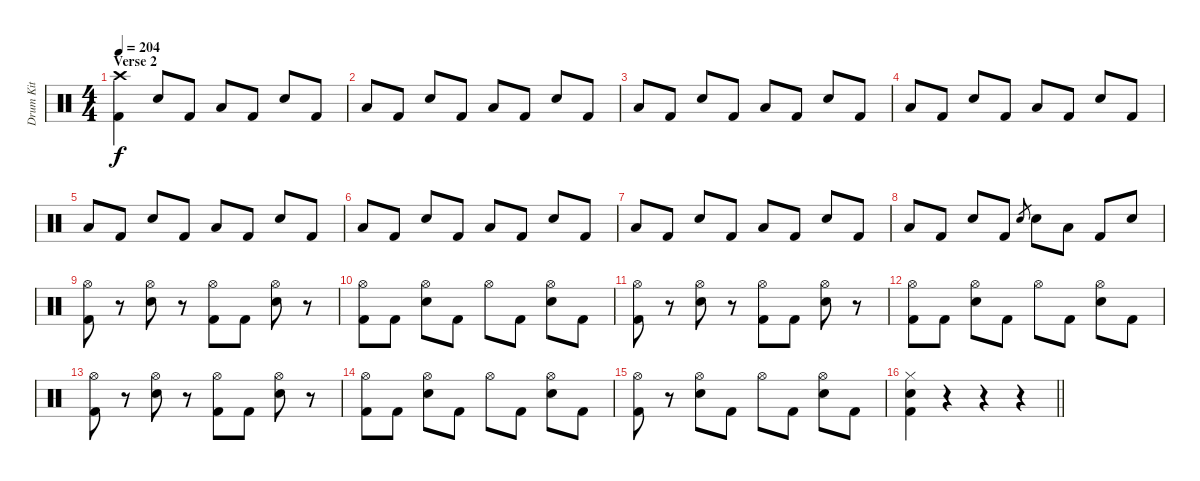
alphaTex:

\track ("Drum Kit" "Drum Kit") {instrument percussion}
\staff {score}
\articulation defaults
\ts (4 4)
\section ("" "Verse 2")
\tempo 204
\clef neutral
\ks c
("Crash high (hit)" "Kick (hit) 2").4{dy f} "Snare (hit) 2".8 "Kick (hit) 2".8 "Low Floor Tom (hit)".8 "Kick (hit) 2".8 "Snare (hit) 2".8 "Kick (hit) 2".8 |
"Low Floor Tom (hit)".8 "Kick (hit) 2".8 "Snare (hit) 2".8 "Kick (hit) 2".8 "Low Floor Tom (hit)".8 "Kick (hit) 2".8 "Snare (hit) 2".8 "Kick (hit) 2".8 |
"Low Floor Tom (hit)".8 "Kick (hit) 2".8 "Snare (hit) 2".8 "Kick (hit) 2".8 "Low Floor Tom (hit)".8 "Kick (hit) 2".8 "Snare (hit) 2".8 "Kick (hit) 2".8 |
"Low Floor Tom (hit)".8 "Kick (hit) 2".8 "Snare (hit) 2".8 "Kick (hit) 2".8 "Low Floor Tom (hit)".8 "Kick (hit) 2".8 "Snare (hit) 2".8 "Kick (hit) 2".8 |
"Low Floor Tom (hit)".8 "Kick (hit) 2".8 "Snare (hit) 2".8 "Kick (hit) 2".8 "Low Floor Tom (hit)".8 "Kick (hit) 2".8 "Snare (hit) 2".8 "Kick (hit) 2".8 |
"Low Floor Tom (hit)".8 "Kick (hit) 2".8 "Snare (hit) 2".8 "Kick (hit) 2".8 "Low Floor Tom (hit)".8 "Kick (hit) 2".8 "Snare (hit) 2".8 "Kick (hit) 2".8 |
"Low Floor Tom (hit)".8 "Kick (hit) 2".8 "Snare (hit) 2".8 "Kick (hit) 2".8 "Low Floor Tom (hit)".8 "Kick (hit) 2".8 "Snare (hit) 2".8 "Kick (hit) 2".8 |
"Low Floor Tom (hit)".8 "Kick (hit) 2".8 "Snare (hit) 2".8 "Kick (hit) 2".8 "Snare (hit) 2".8{gr} "Snare (hit) 2".8 "Low Floor Tom (hit)".8 "Kick (hit) 2".8 "Snare (hit) 2".8 |
("Hi-Hat (open)" "Kick (hit) 2").8 r.8 ("Hi-Hat (open)" "Snare (hit) 2").8 r.8 ("Hi-Hat (open)" "Kick (hit) 2").8 "Kick (hit) 2".8 ("Hi-Hat (open)" "Snare (hit) 2").8 r.8 |
("Hi-Hat (open)" "Kick (hit) 2").8 "Kick (hit) 2".8 ("Hi-Hat (open)" "Snare (hit) 2").8 "Kick (hit) 2".8 "Hi-Hat (open)".8 "Kick (hit) 2".8 ("Hi-Hat (open)" "Snare (hit) 2").8 "Kick (hit) 2".8 |
("Hi-Hat (open)" "Kick (hit) 2").8 r.8 ("Hi-Hat (open)" "Snare (hit) 2").8 r.8 ("Hi-Hat (open)" "Kick (hit) 2").8 "Kick (hit) 2".8 ("Hi-Hat (open)" "Snare (hit) 2").8 r.8 |
("Hi-Hat (open)" "Kick (hit) 2").8 "Kick (hit) 2".8 ("Hi-Hat (open)" "Snare (hit) 2").8 "Kick (hit) 2".8 "Hi-Hat (open)".8 "Kick (hit) 2".8 ("Hi-Hat (open)" "Snare (hit) 2").8 "Kick (hit) 2".8 |
("Hi-Hat (open)" "Kick (hit) 2").8 r.8 ("Hi-Hat (open)" "Snare (hit) 2").8 r.8 ("Hi-Hat (open)" "Kick (hit) 2").8 "Kick (hit) 2".8 ("Hi-Hat (open)" "Snare (hit) 2").8 r.8 |
("Hi-Hat (open)" "Kick (hit) 2").8 "Kick (hit) 2".8 ("Hi-Hat (open)" "Snare (hit) 2").8 "Kick (hit) 2".8 "Hi-Hat (open)".8 "Kick (hit) 2".8 ("Hi-Hat (open)" "Snare (hit) 2").8 "Kick (hit) 2".8 |
("Hi-Hat (open)" "Kick (hit) 2").8 r.8 ("Hi-Hat (open)" "Snare (hit) 2").8 "Kick (hit) 2".8 "Hi-Hat (open)".8 "Kick (hit) 2".8 ("Hi-Hat (open)" "Snare (hit) 2").8 "Kick (hit) 2".8 |
\barLineRight lightlight
("Hi-Hat (closed)" "Snare (hit) 2" "Kick (hit) 2").4 r.4 r.4 r.4
